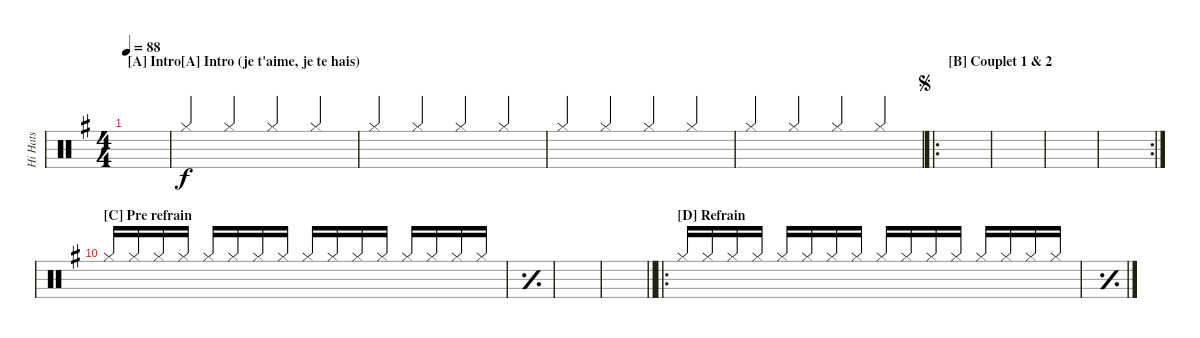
\defaultSystemsLayout 4
\bracketExtendMode groupsimilarinstruments
\firstSystemTrackNameMode fullname
\otherSystemsTrackNameMode fullname
\defaultBarNumberDisplay FirstOfSystem
\track ("Hi Hats" "drm.") {defaultSystemsLayout 6 instrument percussion}
\staff {score}
\articulation defaults
\ts (4 4)
\section ("A" "Intro")
\ac
\tempo 88
\clef neutral
\ks g
|
\section ("A" "Intro (je t'aime, je te hais)")
"Hi-Hat (closed)"{acc forcenatural}.4{beam Up} "Hi-Hat (closed)"{acc forcenatural}.4{beam Up} "Hi-Hat (closed)"{acc forcenatural}.4{beam Up} "Hi-Hat (closed)"{acc forcenatural}.4{beam Up} |
"Hi-Hat (closed)"{acc forcenatural}.4{beam Up} "Hi-Hat (closed)"{acc forcenatural}.4{beam Up} "Hi-Hat (closed)"{acc forcenatural}.4{beam Up} "Hi-Hat (closed)"{acc forcenatural}.4{beam Up} |
"Hi-Hat (closed)"{acc forcenatural}.4{beam Up} "Hi-Hat (closed)"{acc forcenatural}.4{beam Up} "Hi-Hat (closed)"{acc forcenatural}.4{beam Up} "Hi-Hat (closed)"{acc forcenatural}.4{beam Up} |
"Hi-Hat (closed)"{acc forcenatural}.4{beam Up} "Hi-Hat (closed)"{acc forcenatural}.4{beam Up} "Hi-Hat (closed)"{acc forcenatural}.4{beam Up} "Hi-Hat (closed)"{acc forcenatural}.4{beam Up} |
\ro
\section ("B" "Couplet 1 & 2")
\jump segno
|
|
|
\rc 2
|
\section ("C" "Pre refrain")
"Hi-Hat (closed)"{acc forcenatural}.16{beam Up} "Hi-Hat (closed)"{acc forcenatural}.16{beam Up} "Hi-Hat (closed)"{acc forcenatural}.16{beam Up} "Hi-Hat (closed)"{acc forcenatural}.16{beam Up} "Hi-Hat (closed)"{acc forcenatural}.16{beam Up} "Hi-Hat (closed)"{acc forcenatural}.16{beam Up} "Hi-Hat (closed)"{acc forcenatural}.16{beam Up} "Hi-Hat (closed)"{acc forcenatural}.16{beam Up} "Hi-Hat (closed)"{acc forcenatural}.16{beam Up} "Hi-Hat (closed)"{acc forcenatural}.16{beam Up} "Hi-Hat (closed)"{acc forcenatural}.16{beam Up} "Hi-Hat (closed)"{acc forcenatural}.16{beam Up} "Hi-Hat (closed)"{acc forcenatural}.16{beam Up} "Hi-Hat (closed)"{acc forcenatural}.16{beam Up} "Hi-Hat (closed)"{acc forcenatural}.16{beam Up} "Hi-Hat (closed)"{acc forcenatural}.16{beam Up} |
\simile simple
|
|
\section ("" "")
\barLineRight lightlight
|
\ro
\section ("D" "Refrain")
\simile none "Hi-Hat (closed)"{acc forcenatural}.16{beam Up} "Hi-Hat (closed)"{acc forcenatural}.16{beam Up} "Hi-Hat (closed)"{acc forcenatural}.16{beam Up} "Hi-Hat (closed)"{acc forcenatural}.16{beam Up} "Hi-Hat (closed)"{acc forcenatural}.16{beam Up} "Hi-Hat (closed)"{acc forcenatural}.16{beam Up} "Hi-Hat (closed)"{acc forcenatural}.16{beam Up} "Hi-Hat (closed)"{acc forcenatural}.16{beam Up} "Hi-Hat (closed)"{acc forcenatural}.16{beam Up} "Hi-Hat (closed)"{acc forcenatural}.16{beam Up} "Hi-Hat (closed)"{acc forcenatural}.16{beam Up} "Hi-Hat (closed)"{acc forcenatural}.16{beam Up} "Hi-Hat (closed)"{acc forcenatural}.16{beam Up} "Hi-Hat (closed)"{acc forcenatural}.16{beam Up} "Hi-Hat (closed)"{acc forcenatural}.16{beam Up} "Hi-Hat (closed)"{acc forcenatural}.16{beam Up}
|
\simile simple
